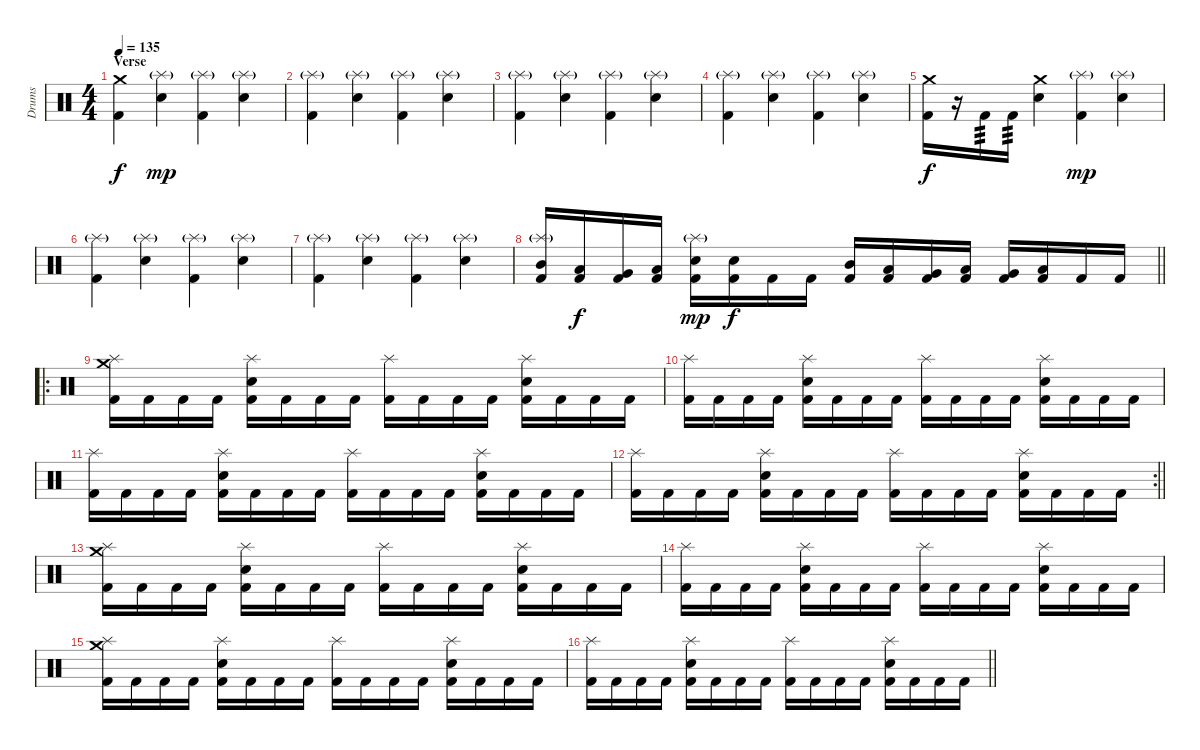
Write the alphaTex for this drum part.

\track ("Drums" "Drums") {instrument percussion}
\staff {score}
\articulation defaults
\ts (4 4)
\section ("" "Verse")
\tempo 135
\clef neutral
\ks c
("Kick (hit) 2" "Crash medium (hit)").4{dy f} ("Snare (hit) 2" "Splash (hit)"{g}).4{dy mp} ("Kick (hit) 2" "Splash (hit)"{g}).4 ("Snare (hit) 2" "Splash (hit)"{g}).4 |
("Kick (hit) 2" "Splash (hit)"{g}).4 ("Snare (hit) 2" "Splash (hit)"{g}).4 ("Kick (hit) 2" "Splash (hit)"{g}).4 ("Snare (hit) 2" "Splash (hit)"{g}).4 |
("Kick (hit) 2" "Splash (hit)"{g}).4 ("Snare (hit) 2" "Splash (hit)"{g}).4 ("Kick (hit) 2" "Splash (hit)"{g}).4 ("Snare (hit) 2" "Splash (hit)"{g}).4 |
("Kick (hit) 2" "Splash (hit)"{g}).4 ("Snare (hit) 2" "Splash (hit)"{g}).4 ("Kick (hit) 2" "Splash (hit)"{g}).4 ("Snare (hit) 2" "Splash (hit)"{g}).4 |
("Kick (hit) 2" "Crash medium (hit)").16{dy f} r.16 "Kick (hit) 2".16{tp 3} "Kick (hit) 2".16{tp 3} ("Snare (hit) 2" "Crash medium (hit)").4 ("Kick (hit) 2" "Splash (hit)"{g}).4{dy mp} ("Snare (hit) 2" "Splash (hit)"{g}).4 |
("Kick (hit) 2" "Splash (hit)"{g}).4 ("Snare (hit) 2" "Splash (hit)"{g}).4 ("Kick (hit) 2" "Splash (hit)"{g}).4 ("Snare (hit) 2" "Splash (hit)"{g}).4 |
("Kick (hit) 2" "Splash (hit)"{g}).4 ("Snare (hit) 2" "Splash (hit)"{g}).4 ("Kick (hit) 2" "Splash (hit)"{g}).4 ("Snare (hit) 2" "Splash (hit)"{g}).4 |
\barLineRight lightlight
("Kick (hit) 2" "Mid Tom (hit)" "Splash (hit)"{g}).16 ("Kick (hit) 2" "Low Tom (hit)").16{dy f} ("Kick (hit) 2" "Very Low Tom (hit)").16 ("Kick (hit) 2" "Low Floor Tom (hit)").16 ("Kick (hit) 2" "Snare (hit) 2" "Splash (hit)"{g}).16{dy mp} ("Kick (hit) 2" "Snare (hit) 2").16{dy f} "Kick (hit) 2".16 "Kick (hit) 2".16 ("Kick (hit) 2" "Mid Tom (hit)").16 ("Kick (hit) 2" "Low Tom (hit)").16 ("Kick (hit) 2" "Very Low Tom (hit)").16 ("Kick (hit) 2" "Low Floor Tom (hit)").16 ("Kick (hit) 2" "Very Low Tom (hit)").16 ("Kick (hit) 2" "Low Floor Tom (hit)").16 "Kick (hit) 2".16 "Kick (hit) 2".16 |
\ro
\section ("" "")
("Kick (hit) 2" "Splash (hit)" "Crash medium (hit)").16 "Kick (hit) 2".16 "Kick (hit) 2".16 "Kick (hit) 2".16 ("Kick (hit) 2" "Snare (hit) 2" "Splash (hit)").16 "Kick (hit) 2".16 "Kick (hit) 2".16 "Kick (hit) 2".16 ("Kick (hit) 2" "Splash (hit)").16 "Kick (hit) 2".16 "Kick (hit) 2".16 "Kick (hit) 2".16 ("Kick (hit) 2" "Snare (hit) 2" "Splash (hit)").16 "Kick (hit) 2".16 "Kick (hit) 2".16 "Kick (hit) 2".16 |
("Kick (hit) 2" "Splash (hit)").16 "Kick (hit) 2".16 "Kick (hit) 2".16 "Kick (hit) 2".16 ("Kick (hit) 2" "Snare (hit) 2" "Splash (hit)").16 "Kick (hit) 2".16 "Kick (hit) 2".16 "Kick (hit) 2".16 ("Kick (hit) 2" "Splash (hit)").16 "Kick (hit) 2".16 "Kick (hit) 2".16 "Kick (hit) 2".16 ("Kick (hit) 2" "Snare (hit) 2" "Splash (hit)").16 "Kick (hit) 2".16 "Kick (hit) 2".16 "Kick (hit) 2".16 |
("Kick (hit) 2" "Splash (hit)").16 "Kick (hit) 2".16 "Kick (hit) 2".16 "Kick (hit) 2".16 ("Kick (hit) 2" "Snare (hit) 2" "Splash (hit)").16 "Kick (hit) 2".16 "Kick (hit) 2".16 "Kick (hit) 2".16 ("Kick (hit) 2" "Splash (hit)").16 "Kick (hit) 2".16 "Kick (hit) 2".16 "Kick (hit) 2".16 ("Kick (hit) 2" "Snare (hit) 2" "Splash (hit)").16 "Kick (hit) 2".16 "Kick (hit) 2".16 "Kick (hit) 2".16 |
\rc 2
\barLineRight lightlight
("Kick (hit) 2" "Splash (hit)").16 "Kick (hit) 2".16 "Kick (hit) 2".16 "Kick (hit) 2".16 ("Kick (hit) 2" "Snare (hit) 2" "Splash (hit)").16 "Kick (hit) 2".16 "Kick (hit) 2".16 "Kick (hit) 2".16 ("Kick (hit) 2" "Splash (hit)").16 "Kick (hit) 2".16 "Kick (hit) 2".16 "Kick (hit) 2".16 ("Kick (hit) 2" "Snare (hit) 2" "Splash (hit)").16 "Kick (hit) 2".16 "Kick (hit) 2".16 "Kick (hit) 2".16 |
("Kick (hit) 2" "Splash (hit)" "Crash medium (hit)").16 "Kick (hit) 2".16 "Kick (hit) 2".16 "Kick (hit) 2".16 ("Kick (hit) 2" "Snare (hit) 2" "Splash (hit)").16 "Kick (hit) 2".16 "Kick (hit) 2".16 "Kick (hit) 2".16 ("Kick (hit) 2" "Splash (hit)").16 "Kick (hit) 2".16 "Kick (hit) 2".16 "Kick (hit) 2".16 ("Kick (hit) 2" "Snare (hit) 2" "Splash (hit)").16 "Kick (hit) 2".16 "Kick (hit) 2".16 "Kick (hit) 2".16 |
("Kick (hit) 2" "Splash (hit)").16 "Kick (hit) 2".16 "Kick (hit) 2".16 "Kick (hit) 2".16 ("Kick (hit) 2" "Snare (hit) 2" "Splash (hit)").16 "Kick (hit) 2".16 "Kick (hit) 2".16 "Kick (hit) 2".16 ("Kick (hit) 2" "Splash (hit)").16 "Kick (hit) 2".16 "Kick (hit) 2".16 "Kick (hit) 2".16 ("Kick (hit) 2" "Snare (hit) 2" "Splash (hit)").16 "Kick (hit) 2".16 "Kick (hit) 2".16 "Kick (hit) 2".16 |
("Kick (hit) 2" "Splash (hit)" "Crash medium (hit)").16 "Kick (hit) 2".16 "Kick (hit) 2".16 "Kick (hit) 2".16 ("Kick (hit) 2" "Snare (hit) 2" "Splash (hit)").16 "Kick (hit) 2".16 "Kick (hit) 2".16 "Kick (hit) 2".16 ("Kick (hit) 2" "Splash (hit)").16 "Kick (hit) 2".16 "Kick (hit) 2".16 "Kick (hit) 2".16 ("Kick (hit) 2" "Snare (hit) 2" "Splash (hit)").16 "Kick (hit) 2".16 "Kick (hit) 2".16 "Kick (hit) 2".16 |
\barLineRight lightlight
("Kick (hit) 2" "Splash (hit)").16 "Kick (hit) 2".16 "Kick (hit) 2".16 "Kick (hit) 2".16 ("Kick (hit) 2" "Snare (hit) 2" "Splash (hit)").16 "Kick (hit) 2".16 "Kick (hit) 2".16 "Kick (hit) 2".16 ("Kick (hit) 2" "Splash (hit)").16 "Kick (hit) 2".16 "Kick (hit) 2".16 "Kick (hit) 2".16 ("Kick (hit) 2" "Snare (hit) 2" "Splash (hit)").16 "Kick (hit) 2".16 "Kick (hit) 2".16 "Kick (hit) 2".16
